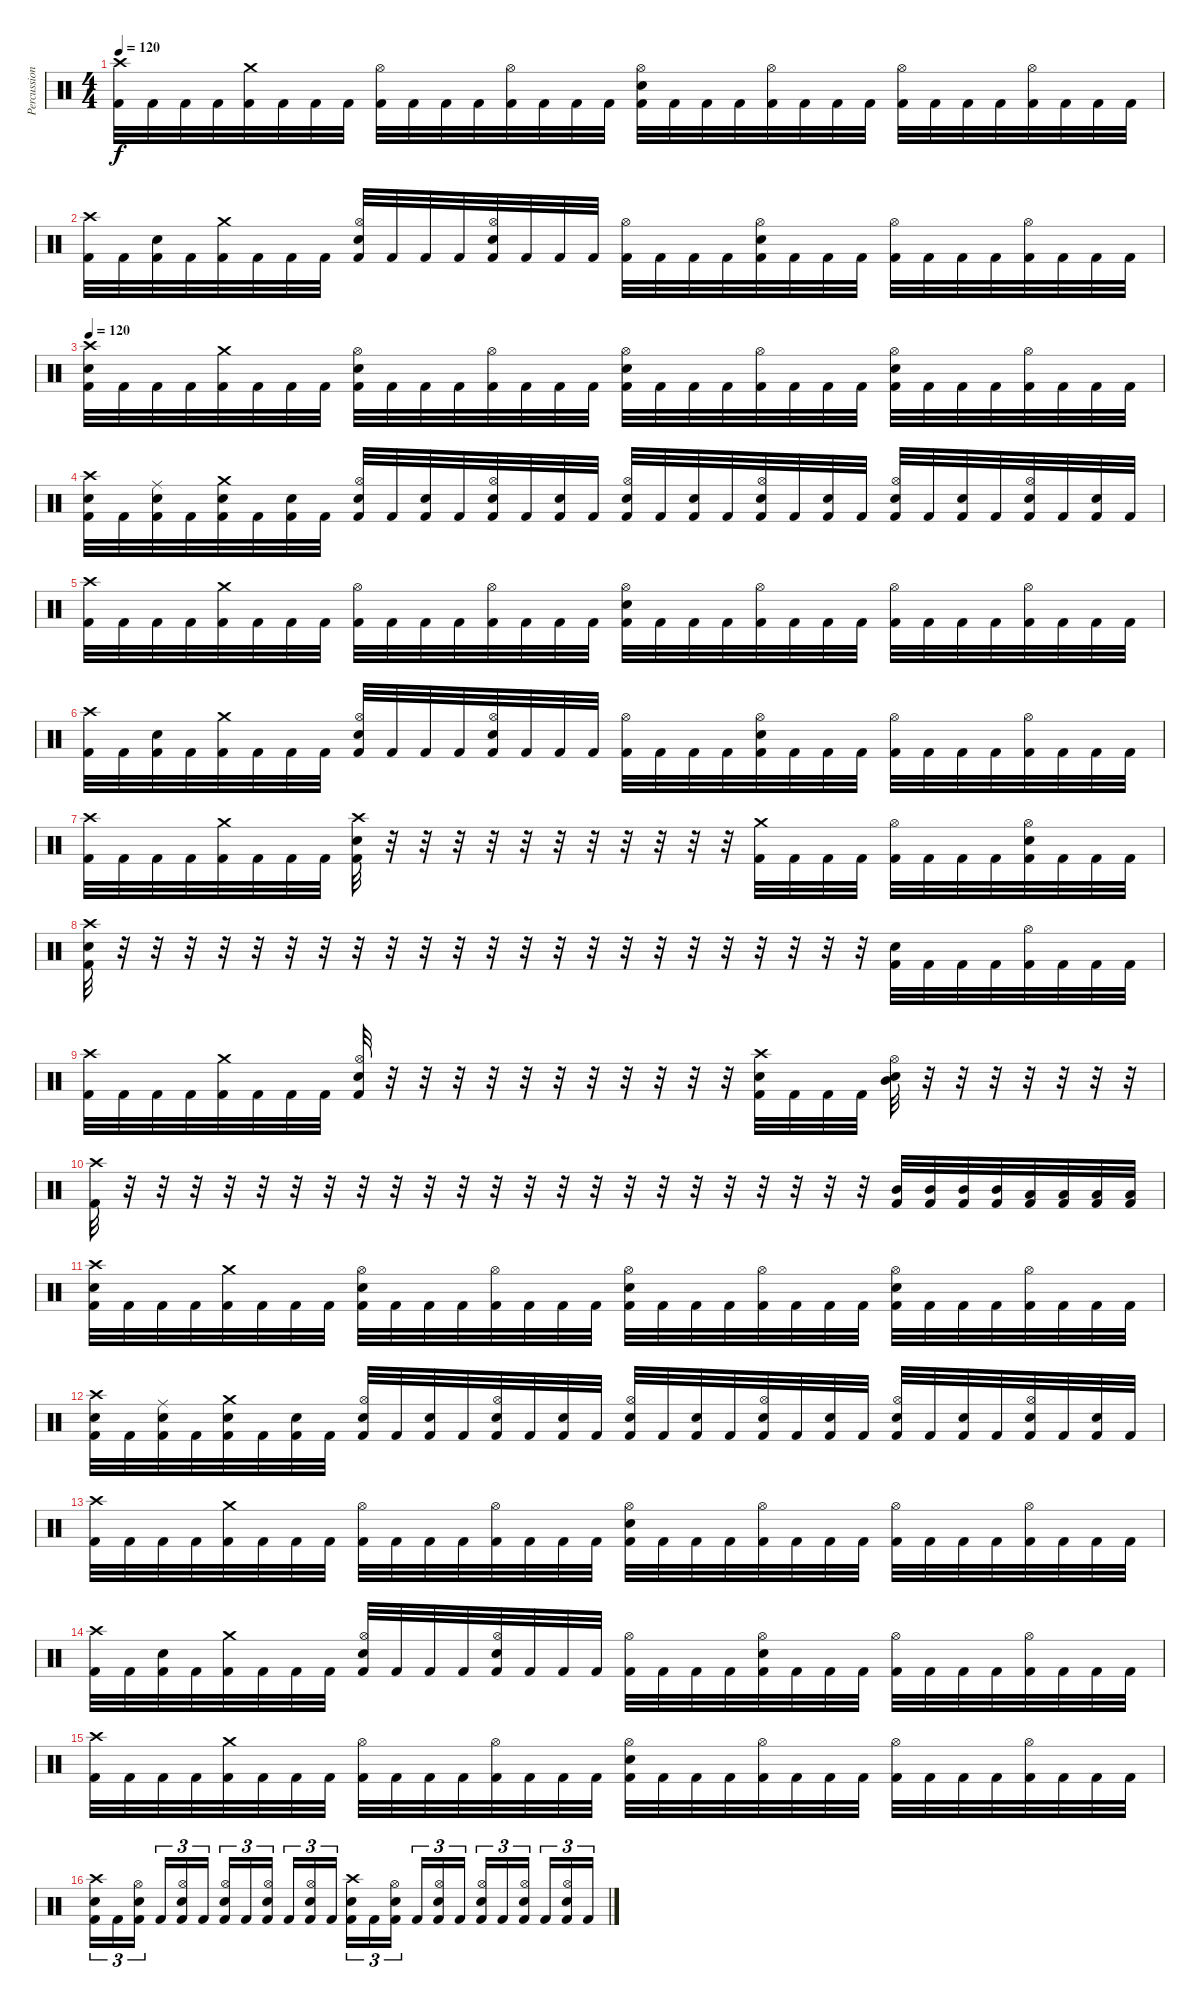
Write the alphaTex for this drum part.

\track ("Percussion" "Percussion") {instrument percussion}
\staff {score}
\articulation defaults
\ts (4 4)
\tempo 120
\clef neutral
\ks c
("Crash high (hit)" "Kick (hit) 2").32{dy f} "Kick (hit) 2".32 "Kick (hit) 2".32 "Kick (hit) 2".32 ("Crash medium (hit)" "Kick (hit) 2").32 "Kick (hit) 2".32 "Kick (hit) 2".32 "Kick (hit) 2".32 ("Hi-Hat (open)" "Kick (hit) 2").32 "Kick (hit) 2".32 "Kick (hit) 2".32 "Kick (hit) 2".32 ("Hi-Hat (open)" "Kick (hit) 2").32 "Kick (hit) 2".32 "Kick (hit) 2".32 "Kick (hit) 2".32 ("Electric Snare (hit)" "Hi-Hat (open)" "Kick (hit) 2").32 "Kick (hit) 2".32 "Kick (hit) 2".32 "Kick (hit) 2".32 ("Hi-Hat (open)" "Kick (hit) 2").32 "Kick (hit) 2".32 "Kick (hit) 2".32 "Kick (hit) 2".32 ("Hi-Hat (open)" "Kick (hit) 2").32 "Kick (hit) 2".32 "Kick (hit) 2".32 "Kick (hit) 2".32 ("Hi-Hat (open)" "Kick (hit) 2").32 "Kick (hit) 2".32 "Kick (hit) 2".32 "Kick (hit) 2".32 |
("Crash high (hit)" "Kick (hit) 2").32 "Kick (hit) 2".32 ("Electric Snare (hit)" "Kick (hit) 2").32 "Kick (hit) 2".32 ("Crash medium (hit)" "Kick (hit) 2").32 "Kick (hit) 2".32 "Kick (hit) 2".32 "Kick (hit) 2".32 ("Electric Snare (hit)" "Hi-Hat (open)" "Kick (hit) 2").32 "Kick (hit) 2".32 "Kick (hit) 2".32 "Kick (hit) 2".32 ("Electric Snare (hit)" "Hi-Hat (open)" "Kick (hit) 2").32 "Kick (hit) 2".32 "Kick (hit) 2".32 "Kick (hit) 2".32 ("Hi-Hat (open)" "Kick (hit) 2").32 "Kick (hit) 2".32 "Kick (hit) 2".32 "Kick (hit) 2".32 ("Electric Snare (hit)" "Hi-Hat (open)" "Kick (hit) 2").32 "Kick (hit) 2".32 "Kick (hit) 2".32 "Kick (hit) 2".32 ("Hi-Hat (open)" "Kick (hit) 2").32 "Kick (hit) 2".32 "Kick (hit) 2".32 "Kick (hit) 2".32 ("Hi-Hat (open)" "Kick (hit) 2").32 "Kick (hit) 2".32 "Kick (hit) 2".32 "Kick (hit) 2".32 |
\tempo 120
("Electric Snare (hit)" "Crash high (hit)" "Kick (hit) 2").32 "Kick (hit) 2".32 "Kick (hit) 2".32 "Kick (hit) 2".32 ("Crash medium (hit)" "Kick (hit) 2").32 "Kick (hit) 2".32 "Kick (hit) 2".32 "Kick (hit) 2".32 ("Electric Snare (hit)" "Hi-Hat (open)" "Kick (hit) 2").32 "Kick (hit) 2".32 "Kick (hit) 2".32 "Kick (hit) 2".32 ("Hi-Hat (open)" "Kick (hit) 2").32 "Kick (hit) 2".32 "Kick (hit) 2".32 "Kick (hit) 2".32 ("Electric Snare (hit)" "Hi-Hat (open)" "Kick (hit) 2").32 "Kick (hit) 2".32 "Kick (hit) 2".32 "Kick (hit) 2".32 ("Hi-Hat (open)" "Kick (hit) 2").32 "Kick (hit) 2".32 "Kick (hit) 2".32 "Kick (hit) 2".32 ("Electric Snare (hit)" "Hi-Hat (open)" "Kick (hit) 2").32 "Kick (hit) 2".32 "Kick (hit) 2".32 "Kick (hit) 2".32 ("Hi-Hat (open)" "Kick (hit) 2").32 "Kick (hit) 2".32 "Kick (hit) 2".32 "Kick (hit) 2".32 |
("Electric Snare (hit)" "Crash high (hit)" "Kick (hit) 2").32 "Kick (hit) 2".32 ("Ride (middle)" "Electric Snare (hit)" "Kick (hit) 2").32 "Kick (hit) 2".32 ("Electric Snare (hit)" "Crash medium (hit)" "Kick (hit) 2").32 "Kick (hit) 2".32 ("Electric Snare (hit)" "Kick (hit) 2").32 "Kick (hit) 2".32 ("Electric Snare (hit)" "Hi-Hat (open)" "Kick (hit) 2").32 "Kick (hit) 2".32 ("Electric Snare (hit)" "Kick (hit) 2").32 "Kick (hit) 2".32 ("Electric Snare (hit)" "Hi-Hat (open)" "Kick (hit) 2").32 "Kick (hit) 2".32 ("Electric Snare (hit)" "Kick (hit) 2").32 "Kick (hit) 2".32 ("Electric Snare (hit)" "Hi-Hat (open)" "Kick (hit) 2").32 "Kick (hit) 2".32 ("Electric Snare (hit)" "Kick (hit) 2").32 "Kick (hit) 2".32 ("Electric Snare (hit)" "Hi-Hat (open)" "Kick (hit) 2").32 "Kick (hit) 2".32 ("Electric Snare (hit)" "Kick (hit) 2").32 "Kick (hit) 2".32 ("Electric Snare (hit)" "Hi-Hat (open)" "Kick (hit) 2").32 "Kick (hit) 2".32 ("Electric Snare (hit)" "Kick (hit) 2").32 "Kick (hit) 2".32 ("Electric Snare (hit)" "Hi-Hat (open)" "Kick (hit) 2").32 "Kick (hit) 2".32 ("Electric Snare (hit)" "Kick (hit) 2").32 "Kick (hit) 2".32 |
("Crash high (hit)" "Kick (hit) 2").32 "Kick (hit) 2".32 "Kick (hit) 2".32 "Kick (hit) 2".32 ("Crash medium (hit)" "Kick (hit) 2").32 "Kick (hit) 2".32 "Kick (hit) 2".32 "Kick (hit) 2".32 ("Hi-Hat (open)" "Kick (hit) 2").32 "Kick (hit) 2".32 "Kick (hit) 2".32 "Kick (hit) 2".32 ("Hi-Hat (open)" "Kick (hit) 2").32 "Kick (hit) 2".32 "Kick (hit) 2".32 "Kick (hit) 2".32 ("Electric Snare (hit)" "Hi-Hat (open)" "Kick (hit) 2").32 "Kick (hit) 2".32 "Kick (hit) 2".32 "Kick (hit) 2".32 ("Hi-Hat (open)" "Kick (hit) 2").32 "Kick (hit) 2".32 "Kick (hit) 2".32 "Kick (hit) 2".32 ("Hi-Hat (open)" "Kick (hit) 2").32 "Kick (hit) 2".32 "Kick (hit) 2".32 "Kick (hit) 2".32 ("Hi-Hat (open)" "Kick (hit) 2").32 "Kick (hit) 2".32 "Kick (hit) 2".32 "Kick (hit) 2".32 |
("Crash high (hit)" "Kick (hit) 2").32 "Kick (hit) 2".32 ("Electric Snare (hit)" "Kick (hit) 2").32 "Kick (hit) 2".32 ("Crash medium (hit)" "Kick (hit) 2").32 "Kick (hit) 2".32 "Kick (hit) 2".32 "Kick (hit) 2".32 ("Electric Snare (hit)" "Hi-Hat (open)" "Kick (hit) 2").32 "Kick (hit) 2".32 "Kick (hit) 2".32 "Kick (hit) 2".32 ("Electric Snare (hit)" "Hi-Hat (open)" "Kick (hit) 2").32 "Kick (hit) 2".32 "Kick (hit) 2".32 "Kick (hit) 2".32 ("Hi-Hat (open)" "Kick (hit) 2").32 "Kick (hit) 2".32 "Kick (hit) 2".32 "Kick (hit) 2".32 ("Electric Snare (hit)" "Hi-Hat (open)" "Kick (hit) 2").32 "Kick (hit) 2".32 "Kick (hit) 2".32 "Kick (hit) 2".32 ("Hi-Hat (open)" "Kick (hit) 2").32 "Kick (hit) 2".32 "Kick (hit) 2".32 "Kick (hit) 2".32 ("Hi-Hat (open)" "Kick (hit) 2").32 "Kick (hit) 2".32 "Kick (hit) 2".32 "Kick (hit) 2".32 |
("Crash high (hit)" "Kick (hit) 2").32 "Kick (hit) 2".32 "Kick (hit) 2".32 "Kick (hit) 2".32 ("Crash medium (hit)" "Kick (hit) 2").32 "Kick (hit) 2".32 "Kick (hit) 2".32 "Kick (hit) 2".32 ("Electric Snare (hit)" "Crash high (hit)" "Kick (hit) 2").32 r.32 r.32 r.32 r.32 r.32 r.32 r.32 r.32 r.32 r.32 r.32 ("Crash medium (hit)" "Kick (hit) 2").32 "Kick (hit) 2".32 "Kick (hit) 2".32 "Kick (hit) 2".32 ("Hi-Hat (open)" "Kick (hit) 2").32 "Kick (hit) 2".32 "Kick (hit) 2".32 "Kick (hit) 2".32 ("Electric Snare (hit)" "Hi-Hat (open)" "Kick (hit) 2").32 "Kick (hit) 2".32 "Kick (hit) 2".32 "Kick (hit) 2".32 |
("Electric Snare (hit)" "Crash high (hit)" "Kick (hit) 2").32 r.32 r.32 r.32 r.32 r.32 r.32 r.32 r.32 r.32 r.32 r.32 r.32 r.32 r.32 r.32 r.32 r.32 r.32 r.32 r.32 r.32 r.32 r.32 ("Electric Snare (hit)" "Kick (hit) 2").32 "Kick (hit) 2".32 "Kick (hit) 2".32 "Kick (hit) 2".32 ("Hi-Hat (open)" "Kick (hit) 2").32 "Kick (hit) 2".32 "Kick (hit) 2".32 "Kick (hit) 2".32 |
("Crash high (hit)" "Kick (hit) 2").32 "Kick (hit) 2".32 "Kick (hit) 2".32 "Kick (hit) 2".32 ("Crash medium (hit)" "Kick (hit) 2").32 "Kick (hit) 2".32 "Kick (hit) 2".32 "Kick (hit) 2".32 ("Electric Snare (hit)" "Hi-Hat (open)" "Kick (hit) 2").32 r.32 r.32 r.32 r.32 r.32 r.32 r.32 r.32 r.32 r.32 r.32 ("Electric Snare (hit)" "Crash high (hit)" "Kick (hit) 2").32 "Kick (hit) 2".32 "Kick (hit) 2".32 "Kick (hit) 2".32 ("Electric Snare (hit)" "Mid Tom (hit)" "Hi-Hat (open)").32 r.32 r.32 r.32 r.32 r.32 r.32 r.32 |
("Crash high (hit)" "Kick (hit) 2").32 r.32 r.32 r.32 r.32 r.32 r.32 r.32 r.32 r.32 r.32 r.32 r.32 r.32 r.32 r.32 r.32 r.32 r.32 r.32 r.32 r.32 r.32 r.32 ("Mid Tom (hit)" "Kick (hit) 2").32 ("Mid Tom (hit)" "Kick (hit) 2").32 ("Mid Tom (hit)" "Kick (hit) 2").32 ("Mid Tom (hit)" "Kick (hit) 2").32 ("Low Tom (hit)" "Kick (hit) 2").32 ("Low Tom (hit)" "Kick (hit) 2").32 ("Low Tom (hit)" "Kick (hit) 2").32 ("Low Tom (hit)" "Kick (hit) 2").32 |
("Electric Snare (hit)" "Crash high (hit)" "Kick (hit) 2").32 "Kick (hit) 2".32 "Kick (hit) 2".32 "Kick (hit) 2".32 ("Crash medium (hit)" "Kick (hit) 2").32 "Kick (hit) 2".32 "Kick (hit) 2".32 "Kick (hit) 2".32 ("Electric Snare (hit)" "Hi-Hat (open)" "Kick (hit) 2").32 "Kick (hit) 2".32 "Kick (hit) 2".32 "Kick (hit) 2".32 ("Hi-Hat (open)" "Kick (hit) 2").32 "Kick (hit) 2".32 "Kick (hit) 2".32 "Kick (hit) 2".32 ("Electric Snare (hit)" "Hi-Hat (open)" "Kick (hit) 2").32 "Kick (hit) 2".32 "Kick (hit) 2".32 "Kick (hit) 2".32 ("Hi-Hat (open)" "Kick (hit) 2").32 "Kick (hit) 2".32 "Kick (hit) 2".32 "Kick (hit) 2".32 ("Electric Snare (hit)" "Hi-Hat (open)" "Kick (hit) 2").32 "Kick (hit) 2".32 "Kick (hit) 2".32 "Kick (hit) 2".32 ("Hi-Hat (open)" "Kick (hit) 2").32 "Kick (hit) 2".32 "Kick (hit) 2".32 "Kick (hit) 2".32 |
("Electric Snare (hit)" "Crash high (hit)" "Kick (hit) 2").32 "Kick (hit) 2".32 ("Ride (middle)" "Electric Snare (hit)" "Kick (hit) 2").32 "Kick (hit) 2".32 ("Electric Snare (hit)" "Crash medium (hit)" "Kick (hit) 2").32 "Kick (hit) 2".32 ("Electric Snare (hit)" "Kick (hit) 2").32 "Kick (hit) 2".32 ("Electric Snare (hit)" "Hi-Hat (open)" "Kick (hit) 2").32 "Kick (hit) 2".32 ("Electric Snare (hit)" "Kick (hit) 2").32 "Kick (hit) 2".32 ("Electric Snare (hit)" "Hi-Hat (open)" "Kick (hit) 2").32 "Kick (hit) 2".32 ("Electric Snare (hit)" "Kick (hit) 2").32 "Kick (hit) 2".32 ("Electric Snare (hit)" "Hi-Hat (open)" "Kick (hit) 2").32 "Kick (hit) 2".32 ("Electric Snare (hit)" "Kick (hit) 2").32 "Kick (hit) 2".32 ("Electric Snare (hit)" "Hi-Hat (open)" "Kick (hit) 2").32 "Kick (hit) 2".32 ("Electric Snare (hit)" "Kick (hit) 2").32 "Kick (hit) 2".32 ("Electric Snare (hit)" "Hi-Hat (open)" "Kick (hit) 2").32 "Kick (hit) 2".32 ("Electric Snare (hit)" "Kick (hit) 2").32 "Kick (hit) 2".32 ("Electric Snare (hit)" "Hi-Hat (open)" "Kick (hit) 2").32 "Kick (hit) 2".32 ("Electric Snare (hit)" "Kick (hit) 2").32 "Kick (hit) 2".32 |
("Crash high (hit)" "Kick (hit) 2").32 "Kick (hit) 2".32 "Kick (hit) 2".32 "Kick (hit) 2".32 ("Crash medium (hit)" "Kick (hit) 2").32 "Kick (hit) 2".32 "Kick (hit) 2".32 "Kick (hit) 2".32 ("Hi-Hat (open)" "Kick (hit) 2").32 "Kick (hit) 2".32 "Kick (hit) 2".32 "Kick (hit) 2".32 ("Hi-Hat (open)" "Kick (hit) 2").32 "Kick (hit) 2".32 "Kick (hit) 2".32 "Kick (hit) 2".32 ("Electric Snare (hit)" "Hi-Hat (open)" "Kick (hit) 2").32 "Kick (hit) 2".32 "Kick (hit) 2".32 "Kick (hit) 2".32 ("Hi-Hat (open)" "Kick (hit) 2").32 "Kick (hit) 2".32 "Kick (hit) 2".32 "Kick (hit) 2".32 ("Hi-Hat (open)" "Kick (hit) 2").32 "Kick (hit) 2".32 "Kick (hit) 2".32 "Kick (hit) 2".32 ("Hi-Hat (open)" "Kick (hit) 2").32 "Kick (hit) 2".32 "Kick (hit) 2".32 "Kick (hit) 2".32 |
("Crash high (hit)" "Kick (hit) 2").32 "Kick (hit) 2".32 ("Electric Snare (hit)" "Kick (hit) 2").32 "Kick (hit) 2".32 ("Crash medium (hit)" "Kick (hit) 2").32 "Kick (hit) 2".32 "Kick (hit) 2".32 "Kick (hit) 2".32 ("Electric Snare (hit)" "Hi-Hat (open)" "Kick (hit) 2").32 "Kick (hit) 2".32 "Kick (hit) 2".32 "Kick (hit) 2".32 ("Electric Snare (hit)" "Hi-Hat (open)" "Kick (hit) 2").32 "Kick (hit) 2".32 "Kick (hit) 2".32 "Kick (hit) 2".32 ("Hi-Hat (open)" "Kick (hit) 2").32 "Kick (hit) 2".32 "Kick (hit) 2".32 "Kick (hit) 2".32 ("Electric Snare (hit)" "Hi-Hat (open)" "Kick (hit) 2").32 "Kick (hit) 2".32 "Kick (hit) 2".32 "Kick (hit) 2".32 ("Hi-Hat (open)" "Kick (hit) 2").32 "Kick (hit) 2".32 "Kick (hit) 2".32 "Kick (hit) 2".32 ("Hi-Hat (open)" "Kick (hit) 2").32 "Kick (hit) 2".32 "Kick (hit) 2".32 "Kick (hit) 2".32 |
("Crash high (hit)" "Kick (hit) 2").32 "Kick (hit) 2".32 "Kick (hit) 2".32 "Kick (hit) 2".32 ("Crash medium (hit)" "Kick (hit) 2").32 "Kick (hit) 2".32 "Kick (hit) 2".32 "Kick (hit) 2".32 ("Hi-Hat (open)" "Kick (hit) 2").32 "Kick (hit) 2".32 "Kick (hit) 2".32 "Kick (hit) 2".32 ("Hi-Hat (open)" "Kick (hit) 2").32 "Kick (hit) 2".32 "Kick (hit) 2".32 "Kick (hit) 2".32 ("Electric Snare (hit)" "Hi-Hat (open)" "Kick (hit) 2").32 "Kick (hit) 2".32 "Kick (hit) 2".32 "Kick (hit) 2".32 ("Hi-Hat (open)" "Kick (hit) 2").32 "Kick (hit) 2".32 "Kick (hit) 2".32 "Kick (hit) 2".32 ("Hi-Hat (open)" "Kick (hit) 2").32 "Kick (hit) 2".32 "Kick (hit) 2".32 "Kick (hit) 2".32 ("Hi-Hat (open)" "Kick (hit) 2").32 "Kick (hit) 2".32 "Kick (hit) 2".32 "Kick (hit) 2".32 |
("Crash high (hit)" "Electric Snare (hit)" "Kick (hit) 2").16{tu (3 2)} "Kick (hit) 2".16{tu (3 2)} ("Hi-Hat (open)" "Electric Snare (hit)" "Kick (hit) 2").16{tu (3 2) beam splitsecondary} "Kick (hit) 2".16{tu (3 2)} ("Hi-Hat (open)" "Electric Snare (hit)" "Kick (hit) 2").16{tu (3 2)} "Kick (hit) 2".16{tu (3 2)} ("Hi-Hat (open)" "Electric Snare (hit)" "Kick (hit) 2").16{tu (3 2)} "Kick (hit) 2".16{tu (3 2)} ("Hi-Hat (open)" "Electric Snare (hit)" "Kick (hit) 2").16{tu (3 2) beam splitsecondary} "Kick (hit) 2".16{tu (3 2)} ("Hi-Hat (open)" "Electric Snare (hit)" "Kick (hit) 2").16{tu (3 2)} "Kick (hit) 2".16{tu (3 2)} ("Crash high (hit)" "Electric Snare (hit)" "Kick (hit) 2").16{tu (3 2)} "Kick (hit) 2".16{tu (3 2)} ("Hi-Hat (open)" "Electric Snare (hit)" "Kick (hit) 2").16{tu (3 2) beam splitsecondary} "Kick (hit) 2".16{tu (3 2)} ("Hi-Hat (open)" "Electric Snare (hit)" "Kick (hit) 2").16{tu (3 2)} "Kick (hit) 2".16{tu (3 2)} ("Hi-Hat (open)" "Electric Snare (hit)" "Kick (hit) 2").16{tu (3 2)} "Kick (hit) 2".16{tu (3 2)} ("Hi-Hat (open)" "Electric Snare (hit)" "Kick (hit) 2").16{tu (3 2) beam splitsecondary} "Kick (hit) 2".16{tu (3 2)} ("Hi-Hat (open)" "Electric Snare (hit)" "Kick (hit) 2").16{tu (3 2)} "Kick (hit) 2".16{tu (3 2)}
